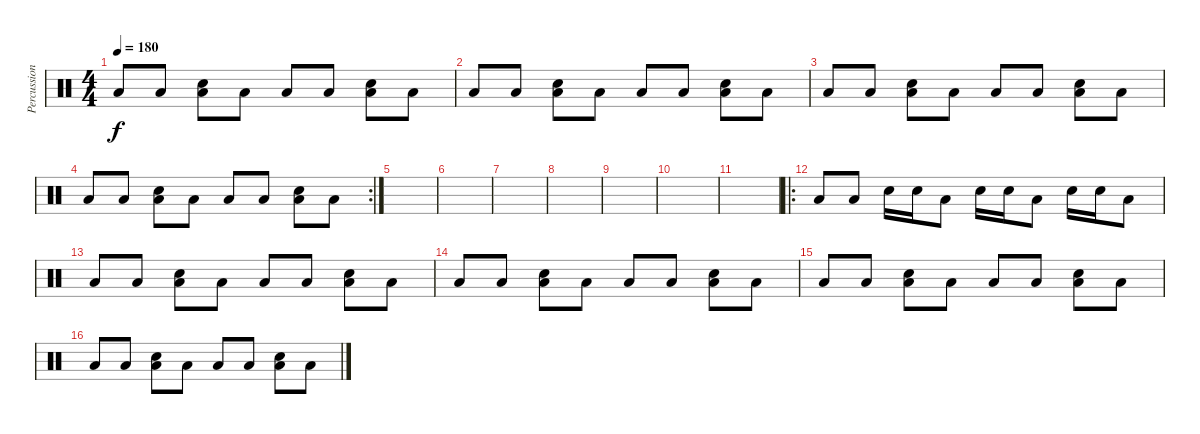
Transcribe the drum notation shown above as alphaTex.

\track ("Percussions" "Percussion") {instrument percussion}
\staff {score}
\articulation defaults
\ts (4 4)
\tempo 180
\clef neutral
\ks c "Low Floor Tom (hit)".8{dy f} "Low Floor Tom (hit)".8
("Snare (hit) 2" "Low Floor Tom (hit)").8 "Low Floor Tom (hit)".8 "Low Floor Tom (hit)".8 "Low Floor Tom (hit)".8 ("Snare (hit) 2" "Low Floor Tom (hit)").8 "Low Floor Tom (hit)".8 |
"Low Floor Tom (hit)".8 "Low Floor Tom (hit)".8 ("Snare (hit) 2" "Low Floor Tom (hit)").8 "Low Floor Tom (hit)".8 "Low Floor Tom (hit)".8 "Low Floor Tom (hit)".8 ("Snare (hit) 2" "Low Floor Tom (hit)").8 "Low Floor Tom (hit)".8 |
"Low Floor Tom (hit)".8 "Low Floor Tom (hit)".8 ("Snare (hit) 2" "Low Floor Tom (hit)").8 "Low Floor Tom (hit)".8 "Low Floor Tom (hit)".8 "Low Floor Tom (hit)".8 ("Snare (hit) 2" "Low Floor Tom (hit)").8 "Low Floor Tom (hit)".8 |
\rc 2 "Low Floor Tom (hit)".8 "Low Floor Tom (hit)".8
("Snare (hit) 2" "Low Floor Tom (hit)").8 "Low Floor Tom (hit)".8 "Low Floor Tom (hit)".8 "Low Floor Tom (hit)".8 ("Snare (hit) 2" "Low Floor Tom (hit)").8 "Low Floor Tom (hit)".8 |
|
|
|
|
|
|
|
\ro "Low Floor Tom (hit)".8 "Low Floor Tom (hit)".8 "Snare (hit) 2".16 "Snare (hit) 2".16 "Low Floor Tom (hit)".8 "Snare (hit) 2".16 "Snare (hit) 2".16 "Low Floor Tom (hit)".8 "Snare (hit) 2".16 "Snare (hit) 2".16 "Low Floor Tom (hit)".8
|
"Low Floor Tom (hit)".8 "Low Floor Tom (hit)".8 ("Snare (hit) 2" "Low Floor Tom (hit)").8 "Low Floor Tom (hit)".8 "Low Floor Tom (hit)".8 "Low Floor Tom (hit)".8 ("Snare (hit) 2" "Low Floor Tom (hit)").8 "Low Floor Tom (hit)".8 |
"Low Floor Tom (hit)".8 "Low Floor Tom (hit)".8 ("Snare (hit) 2" "Low Floor Tom (hit)").8 "Low Floor Tom (hit)".8 "Low Floor Tom (hit)".8 "Low Floor Tom (hit)".8 ("Snare (hit) 2" "Low Floor Tom (hit)").8 "Low Floor Tom (hit)".8 |
"Low Floor Tom (hit)".8 "Low Floor Tom (hit)".8 ("Snare (hit) 2" "Low Floor Tom (hit)").8 "Low Floor Tom (hit)".8 "Low Floor Tom (hit)".8 "Low Floor Tom (hit)".8 ("Snare (hit) 2" "Low Floor Tom (hit)").8 "Low Floor Tom (hit)".8 |
"Low Floor Tom (hit)".8 "Low Floor Tom (hit)".8 ("Snare (hit) 2" "Low Floor Tom (hit)").8 "Low Floor Tom (hit)".8 "Low Floor Tom (hit)".8 "Low Floor Tom (hit)".8 ("Snare (hit) 2" "Low Floor Tom (hit)").8 "Low Floor Tom (hit)".8
